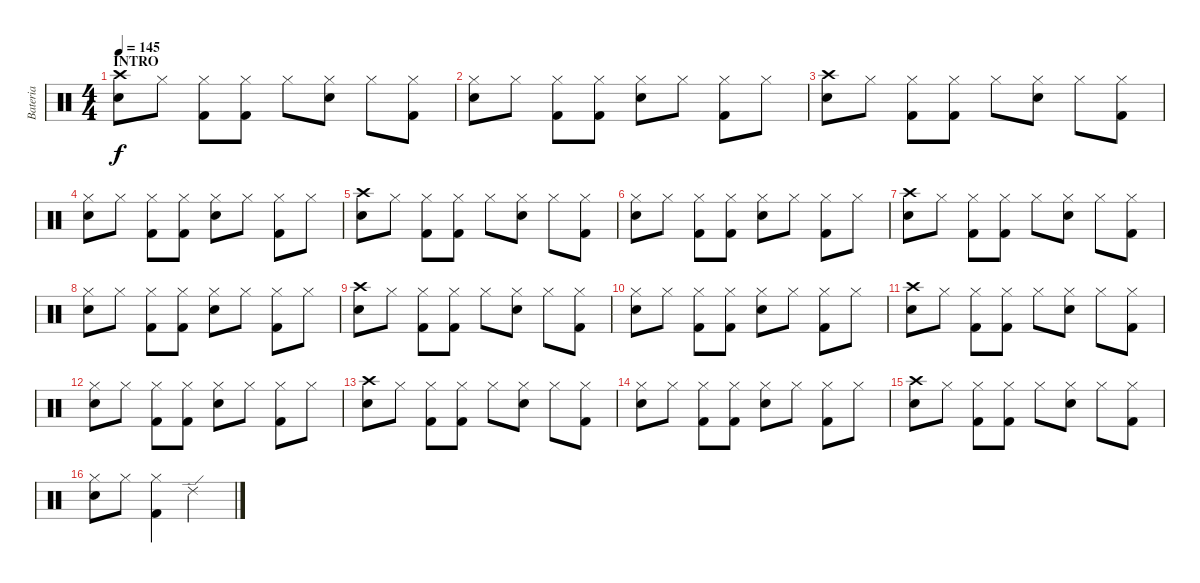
\track ("Bateria" "Bateria") {instrument percussion}
\staff {score}
\articulation defaults
\ts (4 4)
\section ("" "INTRO")
\tempo 145
\clef neutral
\ks c
("Crash high (hit)" "Snare (hit) 2").8{dy f} "Hi-Hat (closed)".8 ("Hi-Hat (closed)" "Kick (hit) 2").8 ("Hi-Hat (closed)" "Kick (hit) 2").8 "Hi-Hat (closed)".8 ("Hi-Hat (closed)" "Snare (hit) 2").8 "Hi-Hat (closed)".8 ("Hi-Hat (closed)" "Kick (hit) 2").8 |
("Hi-Hat (closed)" "Snare (hit) 2").8 "Hi-Hat (closed)".8 ("Hi-Hat (closed)" "Kick (hit) 2").8 ("Hi-Hat (closed)" "Kick (hit) 2").8 ("Hi-Hat (closed)" "Snare (hit) 2").8 "Hi-Hat (closed)".8 ("Hi-Hat (closed)" "Kick (hit) 2").8 "Hi-Hat (closed)".8 |
("Crash high (hit)" "Snare (hit) 2").8 "Hi-Hat (closed)".8 ("Hi-Hat (closed)" "Kick (hit) 2").8 ("Hi-Hat (closed)" "Kick (hit) 2").8 "Hi-Hat (closed)".8 ("Hi-Hat (closed)" "Snare (hit) 2").8 "Hi-Hat (closed)".8 ("Hi-Hat (closed)" "Kick (hit) 2").8 |
("Hi-Hat (closed)" "Snare (hit) 2").8 "Hi-Hat (closed)".8 ("Hi-Hat (closed)" "Kick (hit) 2").8 ("Hi-Hat (closed)" "Kick (hit) 2").8 ("Hi-Hat (closed)" "Snare (hit) 2").8 "Hi-Hat (closed)".8 ("Hi-Hat (closed)" "Kick (hit) 2").8 "Hi-Hat (closed)".8 |
("Crash high (hit)" "Snare (hit) 2").8 "Hi-Hat (closed)".8 ("Hi-Hat (closed)" "Kick (hit) 2").8 ("Hi-Hat (closed)" "Kick (hit) 2").8 "Hi-Hat (closed)".8 ("Hi-Hat (closed)" "Snare (hit) 2").8 "Hi-Hat (closed)".8 ("Hi-Hat (closed)" "Kick (hit) 2").8 |
("Hi-Hat (closed)" "Snare (hit) 2").8 "Hi-Hat (closed)".8 ("Hi-Hat (closed)" "Kick (hit) 2").8 ("Hi-Hat (closed)" "Kick (hit) 2").8 ("Hi-Hat (closed)" "Snare (hit) 2").8 "Hi-Hat (closed)".8 ("Hi-Hat (closed)" "Kick (hit) 2").8 "Hi-Hat (closed)".8 |
("Crash high (hit)" "Snare (hit) 2").8 "Hi-Hat (closed)".8 ("Hi-Hat (closed)" "Kick (hit) 2").8 ("Hi-Hat (closed)" "Kick (hit) 2").8 "Hi-Hat (closed)".8 ("Hi-Hat (closed)" "Snare (hit) 2").8 "Hi-Hat (closed)".8 ("Hi-Hat (closed)" "Kick (hit) 2").8 |
("Hi-Hat (closed)" "Snare (hit) 2").8 "Hi-Hat (closed)".8 ("Hi-Hat (closed)" "Kick (hit) 2").8 ("Hi-Hat (closed)" "Kick (hit) 2").8 ("Hi-Hat (closed)" "Snare (hit) 2").8 "Hi-Hat (closed)".8 ("Hi-Hat (closed)" "Kick (hit) 2").8 "Hi-Hat (closed)".8 |
("Crash high (hit)" "Snare (hit) 2").8 "Hi-Hat (closed)".8 ("Hi-Hat (closed)" "Kick (hit) 2").8 ("Hi-Hat (closed)" "Kick (hit) 2").8 "Hi-Hat (closed)".8 ("Hi-Hat (closed)" "Snare (hit) 2").8 "Hi-Hat (closed)".8 ("Hi-Hat (closed)" "Kick (hit) 2").8 |
("Hi-Hat (closed)" "Snare (hit) 2").8 "Hi-Hat (closed)".8 ("Hi-Hat (closed)" "Kick (hit) 2").8 ("Hi-Hat (closed)" "Kick (hit) 2").8 ("Hi-Hat (closed)" "Snare (hit) 2").8 "Hi-Hat (closed)".8 ("Hi-Hat (closed)" "Kick (hit) 2").8 "Hi-Hat (closed)".8 |
("Crash high (hit)" "Snare (hit) 2").8 "Hi-Hat (closed)".8 ("Hi-Hat (closed)" "Kick (hit) 2").8 ("Hi-Hat (closed)" "Kick (hit) 2").8 "Hi-Hat (closed)".8 ("Hi-Hat (closed)" "Snare (hit) 2").8 "Hi-Hat (closed)".8 ("Hi-Hat (closed)" "Kick (hit) 2").8 |
("Hi-Hat (closed)" "Snare (hit) 2").8 "Hi-Hat (closed)".8 ("Hi-Hat (closed)" "Kick (hit) 2").8 ("Hi-Hat (closed)" "Kick (hit) 2").8 ("Hi-Hat (closed)" "Snare (hit) 2").8 "Hi-Hat (closed)".8 ("Hi-Hat (closed)" "Kick (hit) 2").8 "Hi-Hat (closed)".8 |
("Crash high (hit)" "Snare (hit) 2").8 "Hi-Hat (closed)".8 ("Hi-Hat (closed)" "Kick (hit) 2").8 ("Hi-Hat (closed)" "Kick (hit) 2").8 "Hi-Hat (closed)".8 ("Hi-Hat (closed)" "Snare (hit) 2").8 "Hi-Hat (closed)".8 ("Hi-Hat (closed)" "Kick (hit) 2").8 |
("Hi-Hat (closed)" "Snare (hit) 2").8 "Hi-Hat (closed)".8 ("Hi-Hat (closed)" "Kick (hit) 2").8 ("Hi-Hat (closed)" "Kick (hit) 2").8 ("Hi-Hat (closed)" "Snare (hit) 2").8 "Hi-Hat (closed)".8 ("Hi-Hat (closed)" "Kick (hit) 2").8 "Hi-Hat (closed)".8 |
("Crash high (hit)" "Snare (hit) 2").8 "Hi-Hat (closed)".8 ("Hi-Hat (closed)" "Kick (hit) 2").8 ("Hi-Hat (closed)" "Kick (hit) 2").8 "Hi-Hat (closed)".8 ("Hi-Hat (closed)" "Snare (hit) 2").8 "Hi-Hat (closed)".8 ("Hi-Hat (closed)" "Kick (hit) 2").8 |
("Hi-Hat (closed)" "Snare (hit) 2").8 "Hi-Hat (closed)".8 ("Hi-Hat (closed)" "Kick (hit) 2").4 "Ride (edge) 2".2
